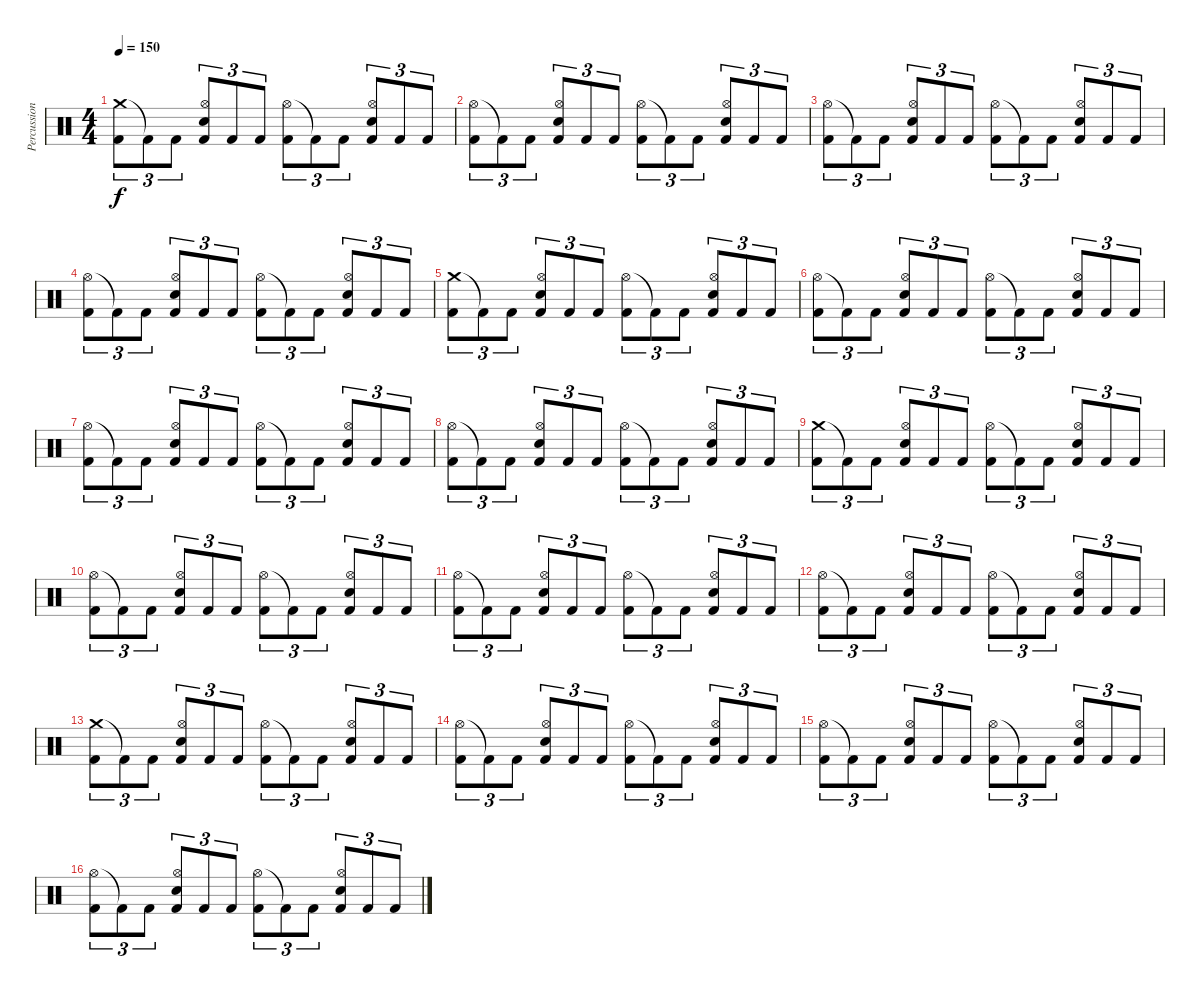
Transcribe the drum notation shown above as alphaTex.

\track ("Percussion" "Percussion") {instrument percussion}
\staff {score}
\articulation defaults
\ts (4 4)
\tempo 150
\clef neutral
\ks c
("Crash medium (hit)" "Kick (hit) 2").8{tu (3 2) dy f} "Kick (hit) 2"{t}.8{tu (3 2)} "Kick (hit) 2".8{tu (3 2)} ("Hi-Hat (open)" "Electric Snare (hit)" "Kick (hit) 2").8{tu (3 2)} "Kick (hit) 2".8{tu (3 2)} "Kick (hit) 2".8{tu (3 2)} ("Hi-Hat (open)" "Kick (hit) 2").8{tu (3 2)} "Kick (hit) 2"{t}.8{tu (3 2)} "Kick (hit) 2".8{tu (3 2)} ("Hi-Hat (open)" "Electric Snare (hit)" "Kick (hit) 2").8{tu (3 2)} "Kick (hit) 2".8{tu (3 2)} "Kick (hit) 2".8{tu (3 2)} |
("Hi-Hat (open)" "Kick (hit) 2").8{tu (3 2)} "Kick (hit) 2"{t}.8{tu (3 2)} "Kick (hit) 2".8{tu (3 2)} ("Hi-Hat (open)" "Electric Snare (hit)" "Kick (hit) 2").8{tu (3 2)} "Kick (hit) 2".8{tu (3 2)} "Kick (hit) 2".8{tu (3 2)} ("Hi-Hat (open)" "Kick (hit) 2").8{tu (3 2)} "Kick (hit) 2"{t}.8{tu (3 2)} "Kick (hit) 2".8{tu (3 2)} ("Hi-Hat (open)" "Electric Snare (hit)" "Kick (hit) 2").8{tu (3 2)} "Kick (hit) 2".8{tu (3 2)} "Kick (hit) 2".8{tu (3 2)} |
("Hi-Hat (open)" "Kick (hit) 2").8{tu (3 2)} "Kick (hit) 2"{t}.8{tu (3 2)} "Kick (hit) 2".8{tu (3 2)} ("Hi-Hat (open)" "Electric Snare (hit)" "Kick (hit) 2").8{tu (3 2)} "Kick (hit) 2".8{tu (3 2)} "Kick (hit) 2".8{tu (3 2)} ("Hi-Hat (open)" "Kick (hit) 2").8{tu (3 2)} "Kick (hit) 2"{t}.8{tu (3 2)} "Kick (hit) 2".8{tu (3 2)} ("Hi-Hat (open)" "Electric Snare (hit)" "Kick (hit) 2").8{tu (3 2)} "Kick (hit) 2".8{tu (3 2)} "Kick (hit) 2".8{tu (3 2)} |
("Hi-Hat (open)" "Kick (hit) 2").8{tu (3 2)} "Kick (hit) 2"{t}.8{tu (3 2)} "Kick (hit) 2".8{tu (3 2)} ("Hi-Hat (open)" "Electric Snare (hit)" "Kick (hit) 2").8{tu (3 2)} "Kick (hit) 2".8{tu (3 2)} "Kick (hit) 2".8{tu (3 2)} ("Hi-Hat (open)" "Kick (hit) 2").8{tu (3 2)} "Kick (hit) 2"{t}.8{tu (3 2)} "Kick (hit) 2".8{tu (3 2)} ("Hi-Hat (open)" "Electric Snare (hit)" "Kick (hit) 2").8{tu (3 2)} "Kick (hit) 2".8{tu (3 2)} "Kick (hit) 2".8{tu (3 2)} |
("Crash medium (hit)" "Kick (hit) 2").8{tu (3 2)} "Kick (hit) 2"{t}.8{tu (3 2)} "Kick (hit) 2".8{tu (3 2)} ("Hi-Hat (open)" "Electric Snare (hit)" "Kick (hit) 2").8{tu (3 2)} "Kick (hit) 2".8{tu (3 2)} "Kick (hit) 2".8{tu (3 2)} ("Hi-Hat (open)" "Kick (hit) 2").8{tu (3 2)} "Kick (hit) 2"{t}.8{tu (3 2)} "Kick (hit) 2".8{tu (3 2)} ("Hi-Hat (open)" "Electric Snare (hit)" "Kick (hit) 2").8{tu (3 2)} "Kick (hit) 2".8{tu (3 2)} "Kick (hit) 2".8{tu (3 2)} |
("Hi-Hat (open)" "Kick (hit) 2").8{tu (3 2)} "Kick (hit) 2"{t}.8{tu (3 2)} "Kick (hit) 2".8{tu (3 2)} ("Hi-Hat (open)" "Electric Snare (hit)" "Kick (hit) 2").8{tu (3 2)} "Kick (hit) 2".8{tu (3 2)} "Kick (hit) 2".8{tu (3 2)} ("Hi-Hat (open)" "Kick (hit) 2").8{tu (3 2)} "Kick (hit) 2"{t}.8{tu (3 2)} "Kick (hit) 2".8{tu (3 2)} ("Hi-Hat (open)" "Electric Snare (hit)" "Kick (hit) 2").8{tu (3 2)} "Kick (hit) 2".8{tu (3 2)} "Kick (hit) 2".8{tu (3 2)} |
("Hi-Hat (open)" "Kick (hit) 2").8{tu (3 2)} "Kick (hit) 2"{t}.8{tu (3 2)} "Kick (hit) 2".8{tu (3 2)} ("Hi-Hat (open)" "Electric Snare (hit)" "Kick (hit) 2").8{tu (3 2)} "Kick (hit) 2".8{tu (3 2)} "Kick (hit) 2".8{tu (3 2)} ("Hi-Hat (open)" "Kick (hit) 2").8{tu (3 2)} "Kick (hit) 2"{t}.8{tu (3 2)} "Kick (hit) 2".8{tu (3 2)} ("Hi-Hat (open)" "Electric Snare (hit)" "Kick (hit) 2").8{tu (3 2)} "Kick (hit) 2".8{tu (3 2)} "Kick (hit) 2".8{tu (3 2)} |
("Hi-Hat (open)" "Kick (hit) 2").8{tu (3 2)} "Kick (hit) 2"{t}.8{tu (3 2)} "Kick (hit) 2".8{tu (3 2)} ("Hi-Hat (open)" "Electric Snare (hit)" "Kick (hit) 2").8{tu (3 2)} "Kick (hit) 2".8{tu (3 2)} "Kick (hit) 2".8{tu (3 2)} ("Hi-Hat (open)" "Kick (hit) 2").8{tu (3 2)} "Kick (hit) 2"{t}.8{tu (3 2)} "Kick (hit) 2".8{tu (3 2)} ("Hi-Hat (open)" "Electric Snare (hit)" "Kick (hit) 2").8{tu (3 2)} "Kick (hit) 2".8{tu (3 2)} "Kick (hit) 2".8{tu (3 2)} |
("Crash medium (hit)" "Kick (hit) 2").8{tu (3 2)} "Kick (hit) 2"{t}.8{tu (3 2)} "Kick (hit) 2".8{tu (3 2)} ("Hi-Hat (open)" "Electric Snare (hit)" "Kick (hit) 2").8{tu (3 2)} "Kick (hit) 2".8{tu (3 2)} "Kick (hit) 2".8{tu (3 2)} ("Hi-Hat (open)" "Kick (hit) 2").8{tu (3 2)} "Kick (hit) 2"{t}.8{tu (3 2)} "Kick (hit) 2".8{tu (3 2)} ("Hi-Hat (open)" "Electric Snare (hit)" "Kick (hit) 2").8{tu (3 2)} "Kick (hit) 2".8{tu (3 2)} "Kick (hit) 2".8{tu (3 2)} |
("Hi-Hat (open)" "Kick (hit) 2").8{tu (3 2)} "Kick (hit) 2"{t}.8{tu (3 2)} "Kick (hit) 2".8{tu (3 2)} ("Hi-Hat (open)" "Electric Snare (hit)" "Kick (hit) 2").8{tu (3 2)} "Kick (hit) 2".8{tu (3 2)} "Kick (hit) 2".8{tu (3 2)} ("Hi-Hat (open)" "Kick (hit) 2").8{tu (3 2)} "Kick (hit) 2"{t}.8{tu (3 2)} "Kick (hit) 2".8{tu (3 2)} ("Hi-Hat (open)" "Electric Snare (hit)" "Kick (hit) 2").8{tu (3 2)} "Kick (hit) 2".8{tu (3 2)} "Kick (hit) 2".8{tu (3 2)} |
("Hi-Hat (open)" "Kick (hit) 2").8{tu (3 2)} "Kick (hit) 2"{t}.8{tu (3 2)} "Kick (hit) 2".8{tu (3 2)} ("Hi-Hat (open)" "Electric Snare (hit)" "Kick (hit) 2").8{tu (3 2)} "Kick (hit) 2".8{tu (3 2)} "Kick (hit) 2".8{tu (3 2)} ("Hi-Hat (open)" "Kick (hit) 2").8{tu (3 2)} "Kick (hit) 2"{t}.8{tu (3 2)} "Kick (hit) 2".8{tu (3 2)} ("Hi-Hat (open)" "Electric Snare (hit)" "Kick (hit) 2").8{tu (3 2)} "Kick (hit) 2".8{tu (3 2)} "Kick (hit) 2".8{tu (3 2)} |
("Hi-Hat (open)" "Kick (hit) 2").8{tu (3 2)} "Kick (hit) 2"{t}.8{tu (3 2)} "Kick (hit) 2".8{tu (3 2)} ("Hi-Hat (open)" "Electric Snare (hit)" "Kick (hit) 2").8{tu (3 2)} "Kick (hit) 2".8{tu (3 2)} "Kick (hit) 2".8{tu (3 2)} ("Hi-Hat (open)" "Kick (hit) 2").8{tu (3 2)} "Kick (hit) 2"{t}.8{tu (3 2)} "Kick (hit) 2".8{tu (3 2)} ("Hi-Hat (open)" "Electric Snare (hit)" "Kick (hit) 2").8{tu (3 2)} "Kick (hit) 2".8{tu (3 2)} "Kick (hit) 2".8{tu (3 2)} |
("Crash medium (hit)" "Kick (hit) 2").8{tu (3 2)} "Kick (hit) 2"{t}.8{tu (3 2)} "Kick (hit) 2".8{tu (3 2)} ("Hi-Hat (open)" "Electric Snare (hit)" "Kick (hit) 2").8{tu (3 2)} "Kick (hit) 2".8{tu (3 2)} "Kick (hit) 2".8{tu (3 2)} ("Hi-Hat (open)" "Kick (hit) 2").8{tu (3 2)} "Kick (hit) 2"{t}.8{tu (3 2)} "Kick (hit) 2".8{tu (3 2)} ("Hi-Hat (open)" "Electric Snare (hit)" "Kick (hit) 2").8{tu (3 2)} "Kick (hit) 2".8{tu (3 2)} "Kick (hit) 2".8{tu (3 2)} |
("Hi-Hat (open)" "Kick (hit) 2").8{tu (3 2)} "Kick (hit) 2"{t}.8{tu (3 2)} "Kick (hit) 2".8{tu (3 2)} ("Hi-Hat (open)" "Electric Snare (hit)" "Kick (hit) 2").8{tu (3 2)} "Kick (hit) 2".8{tu (3 2)} "Kick (hit) 2".8{tu (3 2)} ("Hi-Hat (open)" "Kick (hit) 2").8{tu (3 2)} "Kick (hit) 2"{t}.8{tu (3 2)} "Kick (hit) 2".8{tu (3 2)} ("Hi-Hat (open)" "Electric Snare (hit)" "Kick (hit) 2").8{tu (3 2)} "Kick (hit) 2".8{tu (3 2)} "Kick (hit) 2".8{tu (3 2)} |
("Hi-Hat (open)" "Kick (hit) 2").8{tu (3 2)} "Kick (hit) 2"{t}.8{tu (3 2)} "Kick (hit) 2".8{tu (3 2)} ("Hi-Hat (open)" "Electric Snare (hit)" "Kick (hit) 2").8{tu (3 2)} "Kick (hit) 2".8{tu (3 2)} "Kick (hit) 2".8{tu (3 2)} ("Hi-Hat (open)" "Kick (hit) 2").8{tu (3 2)} "Kick (hit) 2"{t}.8{tu (3 2)} "Kick (hit) 2".8{tu (3 2)} ("Hi-Hat (open)" "Electric Snare (hit)" "Kick (hit) 2").8{tu (3 2)} "Kick (hit) 2".8{tu (3 2)} "Kick (hit) 2".8{tu (3 2)} |
("Hi-Hat (open)" "Kick (hit) 2").8{tu (3 2)} "Kick (hit) 2"{t}.8{tu (3 2)} "Kick (hit) 2".8{tu (3 2)} ("Hi-Hat (open)" "Electric Snare (hit)" "Kick (hit) 2").8{tu (3 2)} "Kick (hit) 2".8{tu (3 2)} "Kick (hit) 2".8{tu (3 2)} ("Hi-Hat (open)" "Kick (hit) 2").8{tu (3 2)} "Kick (hit) 2"{t}.8{tu (3 2)} "Kick (hit) 2".8{tu (3 2)} ("Hi-Hat (open)" "Electric Snare (hit)" "Kick (hit) 2").8{tu (3 2)} "Kick (hit) 2".8{tu (3 2)} "Kick (hit) 2".8{tu (3 2)}
